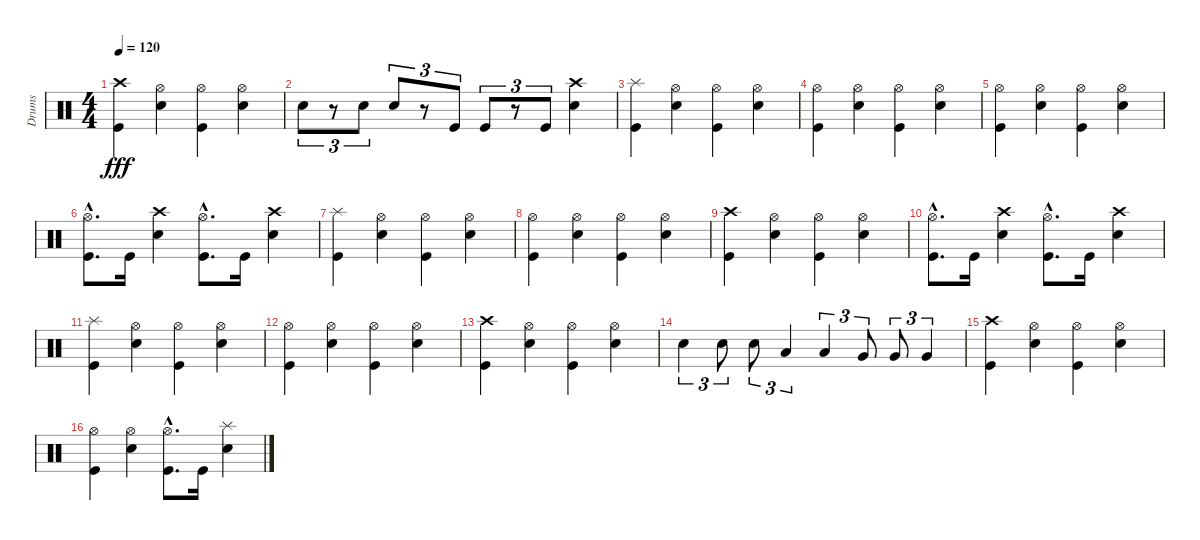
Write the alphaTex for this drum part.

\track ("Drums" "Drums") {instrument percussion}
\staff {score}
\articulation defaults
\ts (4 4)
\tempo 120
\clef neutral
\ks c
("Crash high (hit)" "Kick (hit)").4{dy fff} ("Hi-Hat (open)" "Snare (hit) 2").4 ("Hi-Hat (open)" "Kick (hit)").4 ("Hi-Hat (open)" "Snare (hit) 2").4 |
"Snare (hit) 2".8{tu (3 2)} r.8{tu (3 2)} "Snare (hit) 2".8{tu (3 2)} "Snare (hit) 2".8{tu (3 2)} r.8{tu (3 2)} "Kick (hit)".8{tu (3 2)} "Kick (hit)".8{tu (3 2)} r.8{tu (3 2)} "Kick (hit)".8{tu (3 2)} ("Crash high (hit)" "Snare (hit) 2").4 |
("Splash (hit)" "Kick (hit)").4 ("Hi-Hat (open)" "Snare (hit) 2").4 ("Hi-Hat (open)" "Kick (hit)").4 ("Hi-Hat (open)" "Snare (hit) 2").4 |
("Hi-Hat (open)" "Kick (hit)").4 ("Hi-Hat (open)" "Snare (hit) 2").4 ("Hi-Hat (open)" "Kick (hit)").4 ("Hi-Hat (open)" "Snare (hit) 2").4 |
("Hi-Hat (open)" "Kick (hit)").4 ("Hi-Hat (open)" "Snare (hit) 2").4 ("Hi-Hat (open)" "Kick (hit)").4 ("Hi-Hat (open)" "Snare (hit) 2").4 |
("Hi-Hat (open)"{hac} "Kick (hit)"{hac}).8{d} "Kick (hit)".16 ("Crash high (hit)" "Snare (hit) 2").4 ("Hi-Hat (open)"{hac} "Kick (hit)"{hac}).8{d} "Kick (hit)".16 ("Crash high (hit)" "Snare (hit) 2").4 |
("Splash (hit)" "Kick (hit)").4 ("Hi-Hat (open)" "Snare (hit) 2").4 ("Hi-Hat (open)" "Kick (hit)").4 ("Hi-Hat (open)" "Snare (hit) 2").4 |
("Hi-Hat (open)" "Kick (hit)").4 ("Hi-Hat (open)" "Snare (hit) 2").4 ("Hi-Hat (open)" "Kick (hit)").4 ("Hi-Hat (open)" "Snare (hit) 2").4 |
("Crash high (hit)" "Kick (hit)").4 ("Hi-Hat (open)" "Snare (hit) 2").4 ("Hi-Hat (open)" "Kick (hit)").4 ("Hi-Hat (open)" "Snare (hit) 2").4 |
("Hi-Hat (open)"{hac} "Kick (hit)"{hac}).8{d} "Kick (hit)".16 ("Crash high (hit)" "Snare (hit) 2").4 ("Hi-Hat (open)"{hac} "Kick (hit)"{hac}).8{d} "Kick (hit)".16 ("Crash high (hit)" "Snare (hit) 2").4 |
("Splash (hit)" "Kick (hit)").4 ("Hi-Hat (open)" "Snare (hit) 2").4 ("Hi-Hat (open)" "Kick (hit)").4 ("Hi-Hat (open)" "Snare (hit) 2").4 |
("Hi-Hat (open)" "Kick (hit)").4 ("Hi-Hat (open)" "Snare (hit) 2").4 ("Hi-Hat (open)" "Kick (hit)").4 ("Hi-Hat (open)" "Snare (hit) 2").4 |
("Crash high (hit)" "Kick (hit)").4 ("Hi-Hat (open)" "Snare (hit) 2").4 ("Hi-Hat (open)" "Kick (hit)").4 ("Hi-Hat (open)" "Snare (hit) 2").4 |
"Snare (hit) 2".4{tu (3 2)} "Snare (hit) 2".8{tu (3 2)} "Snare (hit) 2".8{tu (3 2)} "Low Tom (hit)".4{tu (3 2)} "Low Tom (hit)".4{tu (3 2)} "Very Low Tom (hit)".8{tu (3 2)} "Very Low Tom (hit)".8{tu (3 2)} "Very Low Tom (hit)".4{tu (3 2)} |
("Crash high (hit)" "Kick (hit)").4 ("Hi-Hat (open)" "Snare (hit) 2").4 ("Hi-Hat (open)" "Kick (hit)").4 ("Hi-Hat (open)" "Snare (hit) 2").4 |
("Hi-Hat (open)" "Kick (hit)").4 ("Hi-Hat (open)" "Snare (hit) 2").4 ("Hi-Hat (open)"{hac} "Kick (hit)"{hac}).8{d} "Kick (hit)".16 ("Splash (hit)" "Snare (hit) 2").4
